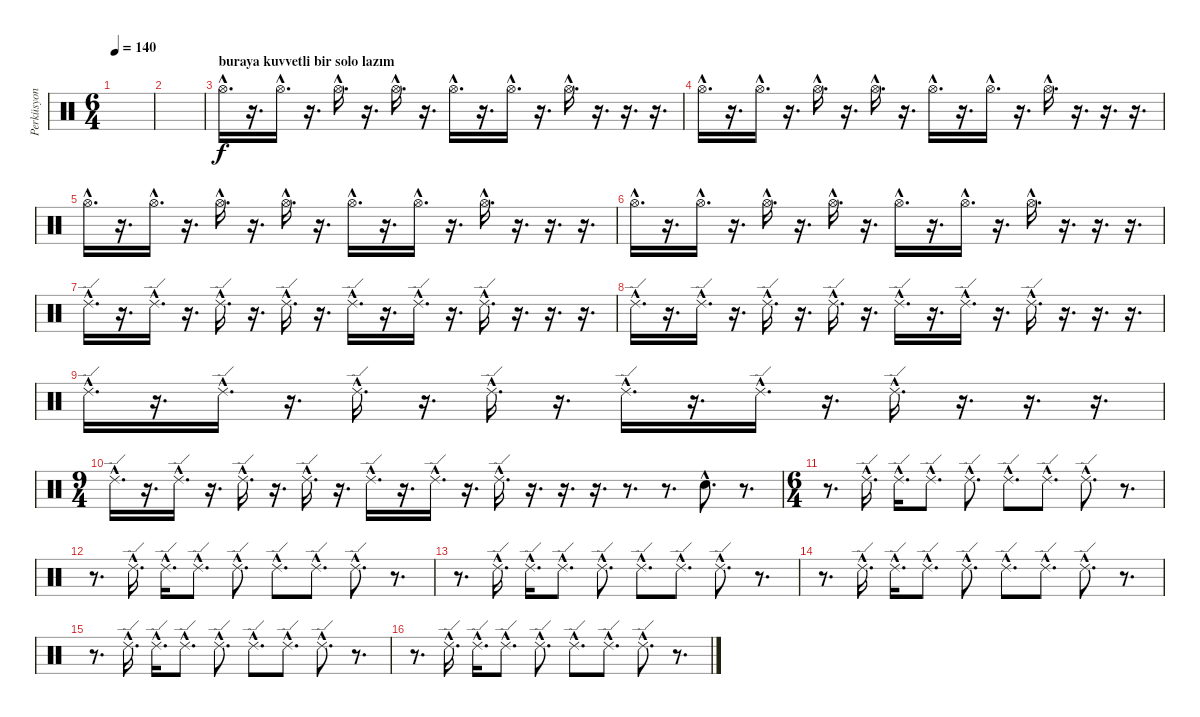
\track ("Perküsyon" "Perküsyon") {instrument percussion}
\staff {score}
\articulation defaults
\ts (6 4)
\tempo 140
\clef neutral
\ks c
|
|
\section ("" "buraya kuvvetli bir solo lazım")
"Hi-Hat (open)"{hac}.16{d} r.16{d} "Hi-Hat (open)"{hac}.16{d} r.16{d} "Hi-Hat (open)"{hac}.16{d} r.16{d} "Hi-Hat (open)"{hac}.16{d} r.16{d} "Hi-Hat (open)"{hac}.16{d} r.16{d} "Hi-Hat (open)"{hac}.16{d} r.16{d} "Hi-Hat (open)"{hac}.16{d} r.16{d} r.16{d} r.16{d} |
"Hi-Hat (open)"{hac}.16{d} r.16{d} "Hi-Hat (open)"{hac}.16{d} r.16{d} "Hi-Hat (open)"{hac}.16{d} r.16{d} "Hi-Hat (open)"{hac}.16{d} r.16{d} "Hi-Hat (open)"{hac}.16{d} r.16{d} "Hi-Hat (open)"{hac}.16{d} r.16{d} "Hi-Hat (open)"{hac}.16{d} r.16{d} r.16{d} r.16{d} |
"Hi-Hat (open)"{hac}.16{d} r.16{d} "Hi-Hat (open)"{hac}.16{d} r.16{d} "Hi-Hat (open)"{hac}.16{d} r.16{d} "Hi-Hat (open)"{hac}.16{d} r.16{d} "Hi-Hat (open)"{hac}.16{d} r.16{d} "Hi-Hat (open)"{hac}.16{d} r.16{d} "Hi-Hat (open)"{hac}.16{d} r.16{d} r.16{d} r.16{d} |
"Hi-Hat (open)"{hac}.16{d} r.16{d} "Hi-Hat (open)"{hac}.16{d} r.16{d} "Hi-Hat (open)"{hac}.16{d} r.16{d} "Hi-Hat (open)"{hac}.16{d} r.16{d} "Hi-Hat (open)"{hac}.16{d} r.16{d} "Hi-Hat (open)"{hac}.16{d} r.16{d} "Hi-Hat (open)"{hac}.16{d} r.16{d} r.16{d} r.16{d} |
"Ride (edge) 2"{hac}.16{d} r.16{d} "Ride (edge) 2"{hac}.16{d} r.16{d} "Ride (edge) 2"{hac}.16{d} r.16{d} "Ride (edge) 2"{hac}.16{d} r.16{d} "Ride (edge) 2"{hac}.16{d} r.16{d} "Ride (edge) 2"{hac}.16{d} r.16{d} "Ride (edge) 2"{hac}.16{d} r.16{d} r.16{d} r.16{d} |
"Ride (edge) 2"{hac}.16{d} r.16{d} "Ride (edge) 2"{hac}.16{d} r.16{d} "Ride (edge) 2"{hac}.16{d} r.16{d} "Ride (edge) 2"{hac}.16{d} r.16{d} "Ride (edge) 2"{hac}.16{d} r.16{d} "Ride (edge) 2"{hac}.16{d} r.16{d} "Ride (edge) 2"{hac}.16{d} r.16{d} r.16{d} r.16{d} |
"Ride (edge) 2"{hac}.16{d} r.16{d} "Ride (edge) 2"{hac}.16{d} r.16{d} "Ride (edge) 2"{hac}.16{d} r.16{d} "Ride (edge) 2"{hac}.16{d} r.16{d} "Ride (edge) 2"{hac}.16{d} r.16{d} "Ride (edge) 2"{hac}.16{d} r.16{d} "Ride (edge) 2"{hac}.16{d} r.16{d} r.16{d} r.16{d} |
\ts (9 4)
"Ride (edge) 2"{hac}.16{d} r.16{d} "Ride (edge) 2"{hac}.16{d} r.16{d} "Ride (edge) 2"{hac}.16{d} r.16{d} "Ride (edge) 2"{hac}.16{d} r.16{d} "Ride (edge) 2"{hac}.16{d} r.16{d} "Ride (edge) 2"{hac}.16{d} r.16{d} "Ride (edge) 2"{hac}.16{d} r.16{d} r.16{d} r.16{d} r.8{d} r.8{d} "Snare (hit)"{hac}.8{d} r.8{d} |
\ts (6 4)
r.8{d} "Ride (edge) 2"{hac}.16{d} "Ride (edge) 2"{hac}.16{d} "Ride (edge) 2"{hac}.8{d} "Ride (edge) 2"{hac}.8{d} "Ride (edge) 2"{hac}.8{d} "Ride (edge) 2"{hac}.8{d} "Ride (edge) 2"{hac}.8{d} r.8{d} |
r.8{d} "Ride (edge) 2"{hac}.16{d} "Ride (edge) 2"{hac}.16{d} "Ride (edge) 2"{hac}.8{d} "Ride (edge) 2"{hac}.8{d} "Ride (edge) 2"{hac}.8{d} "Ride (edge) 2"{hac}.8{d} "Ride (edge) 2"{hac}.8{d} r.8{d} |
r.8{d} "Ride (edge) 2"{hac}.16{d} "Ride (edge) 2"{hac}.16{d} "Ride (edge) 2"{hac}.8{d} "Ride (edge) 2"{hac}.8{d} "Ride (edge) 2"{hac}.8{d} "Ride (edge) 2"{hac}.8{d} "Ride (edge) 2"{hac}.8{d} r.8{d} |
r.8{d} "Ride (edge) 2"{hac}.16{d} "Ride (edge) 2"{hac}.16{d} "Ride (edge) 2"{hac}.8{d} "Ride (edge) 2"{hac}.8{d} "Ride (edge) 2"{hac}.8{d} "Ride (edge) 2"{hac}.8{d} "Ride (edge) 2"{hac}.8{d} r.8{d} |
r.8{d} "Ride (edge) 2"{hac}.16{d} "Ride (edge) 2"{hac}.16{d} "Ride (edge) 2"{hac}.8{d} "Ride (edge) 2"{hac}.8{d} "Ride (edge) 2"{hac}.8{d} "Ride (edge) 2"{hac}.8{d} "Ride (edge) 2"{hac}.8{d} r.8{d} |
r.8{d} "Ride (edge) 2"{hac}.16{d} "Ride (edge) 2"{hac}.16{d} "Ride (edge) 2"{hac}.8{d} "Ride (edge) 2"{hac}.8{d} "Ride (edge) 2"{hac}.8{d} "Ride (edge) 2"{hac}.8{d} "Ride (edge) 2"{hac}.8{d} r.8{d}
